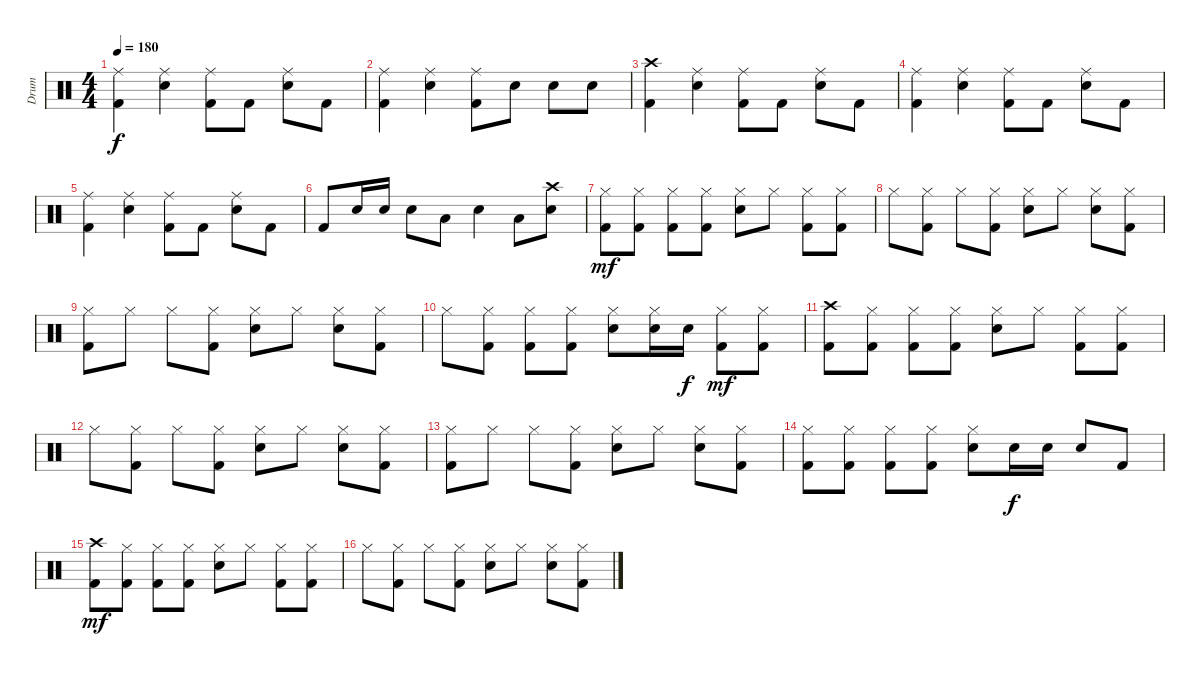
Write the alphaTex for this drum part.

\track ("Drum" "Drum") {instrument percussion}
\staff {score}
\articulation defaults
\ts (4 4)
\tempo 180
\clef neutral
\ks c
("Ride (middle)" "Kick (hit) 2").4{dy f} ("Ride (middle)" "Electric Snare (hit)").4 ("Ride (middle)" "Kick (hit) 2").8 "Kick (hit) 2".8 ("Ride (middle)" "Electric Snare (hit)").8 "Kick (hit) 2".8 |
("Ride (middle)" "Kick (hit) 2").4 ("Ride (middle)" "Electric Snare (hit)").4 ("Ride (middle)" "Kick (hit) 2").8 "Electric Snare (hit)".8 "Electric Snare (hit)".8 "Electric Snare (hit)".8 |
("Crash high (hit)" "Kick (hit) 2").4 ("Ride (middle)" "Electric Snare (hit)").4 ("Ride (middle)" "Kick (hit) 2").8 "Kick (hit) 2".8 ("Ride (middle)" "Electric Snare (hit)").8 "Kick (hit) 2".8 |
("Ride (middle)" "Kick (hit) 2").4 ("Ride (middle)" "Electric Snare (hit)").4 ("Ride (middle)" "Kick (hit) 2").8 "Kick (hit) 2".8 ("Ride (middle)" "Electric Snare (hit)").8 "Kick (hit) 2".8 |
("Ride (middle)" "Kick (hit) 2").4 ("Ride (middle)" "Electric Snare (hit)").4 ("Ride (middle)" "Kick (hit) 2").8 "Kick (hit) 2".8 ("Ride (middle)" "Electric Snare (hit)").8 "Kick (hit) 2".8 |
"Kick (hit) 2".8 "Electric Snare (hit)".16 "Electric Snare (hit)".16 "Electric Snare (hit)".8 "Low Floor Tom (hit)".8 "Electric Snare (hit)".4 "Low Tom (hit)".8 ("Crash high (hit)" "Electric Snare (hit)").8 |
("Hi-Hat (closed)" "Kick (hit) 2").8{dy mf} ("Hi-Hat (closed)" "Kick (hit) 2").8 ("Hi-Hat (closed)" "Kick (hit) 2").8 ("Hi-Hat (closed)" "Kick (hit) 2").8 ("Hi-Hat (closed)" "Electric Snare (hit)").8 "Hi-Hat (closed)".8 ("Hi-Hat (closed)" "Kick (hit) 2").8 ("Hi-Hat (closed)" "Kick (hit) 2").8 |
"Hi-Hat (closed)".8 ("Hi-Hat (closed)" "Kick (hit) 2").8 "Hi-Hat (closed)".8 ("Hi-Hat (closed)" "Kick (hit) 2").8 ("Hi-Hat (closed)" "Electric Snare (hit)").8 "Hi-Hat (closed)".8 ("Hi-Hat (closed)" "Electric Snare (hit)").8 ("Hi-Hat (closed)" "Kick (hit) 2").8 |
("Hi-Hat (closed)" "Kick (hit) 2").8 "Hi-Hat (closed)".8 "Hi-Hat (closed)".8 ("Hi-Hat (closed)" "Kick (hit) 2").8 ("Hi-Hat (closed)" "Electric Snare (hit)").8 "Hi-Hat (closed)".8 ("Hi-Hat (closed)" "Electric Snare (hit)").8 ("Hi-Hat (closed)" "Kick (hit) 2").8 |
"Hi-Hat (closed)".8 ("Hi-Hat (closed)" "Kick (hit) 2").8 ("Hi-Hat (closed)" "Kick (hit) 2").8 ("Hi-Hat (closed)" "Kick (hit) 2").8 ("Hi-Hat (closed)" "Electric Snare (hit)").8 ("Hi-Hat (closed)" "Electric Snare (hit)").16 "Electric Snare (hit)".16{dy f} ("Hi-Hat (closed)" "Kick (hit) 2").8{dy mf} ("Hi-Hat (closed)" "Kick (hit) 2").8 |
("Crash high (hit)" "Kick (hit) 2").8 ("Hi-Hat (closed)" "Kick (hit) 2").8 ("Hi-Hat (closed)" "Kick (hit) 2").8 ("Hi-Hat (closed)" "Kick (hit) 2").8 ("Hi-Hat (closed)" "Electric Snare (hit)").8 "Hi-Hat (closed)".8 ("Hi-Hat (closed)" "Kick (hit) 2").8 ("Hi-Hat (closed)" "Kick (hit) 2").8 |
"Hi-Hat (closed)".8 ("Hi-Hat (closed)" "Kick (hit) 2").8 "Hi-Hat (closed)".8 ("Hi-Hat (closed)" "Kick (hit) 2").8 ("Hi-Hat (closed)" "Electric Snare (hit)").8 "Hi-Hat (closed)".8 ("Hi-Hat (closed)" "Electric Snare (hit)").8 ("Hi-Hat (closed)" "Kick (hit) 2").8 |
("Hi-Hat (closed)" "Kick (hit) 2").8 "Hi-Hat (closed)".8 "Hi-Hat (closed)".8 ("Hi-Hat (closed)" "Kick (hit) 2").8 ("Hi-Hat (closed)" "Electric Snare (hit)").8 "Hi-Hat (closed)".8 ("Hi-Hat (closed)" "Electric Snare (hit)").8 ("Hi-Hat (closed)" "Kick (hit) 2").8 |
("Hi-Hat (closed)" "Kick (hit) 2").8 ("Hi-Hat (closed)" "Kick (hit) 2").8 ("Hi-Hat (closed)" "Kick (hit) 2").8 ("Hi-Hat (closed)" "Kick (hit) 2").8 ("Hi-Hat (closed)" "Electric Snare (hit)").8 "Electric Snare (hit)".16{dy f} "Electric Snare (hit)".16 "Electric Snare (hit)".8 "Kick (hit) 2".8 |
("Crash high (hit)" "Kick (hit) 2").8{dy mf} ("Hi-Hat (closed)" "Kick (hit) 2").8 ("Hi-Hat (closed)" "Kick (hit) 2").8 ("Hi-Hat (closed)" "Kick (hit) 2").8 ("Hi-Hat (closed)" "Electric Snare (hit)").8 "Hi-Hat (closed)".8 ("Hi-Hat (closed)" "Kick (hit) 2").8 ("Hi-Hat (closed)" "Kick (hit) 2").8 |
"Hi-Hat (closed)".8 ("Hi-Hat (closed)" "Kick (hit) 2").8 "Hi-Hat (closed)".8 ("Hi-Hat (closed)" "Kick (hit) 2").8 ("Hi-Hat (closed)" "Electric Snare (hit)").8 "Hi-Hat (closed)".8 ("Hi-Hat (closed)" "Electric Snare (hit)").8 ("Hi-Hat (closed)" "Kick (hit) 2").8
